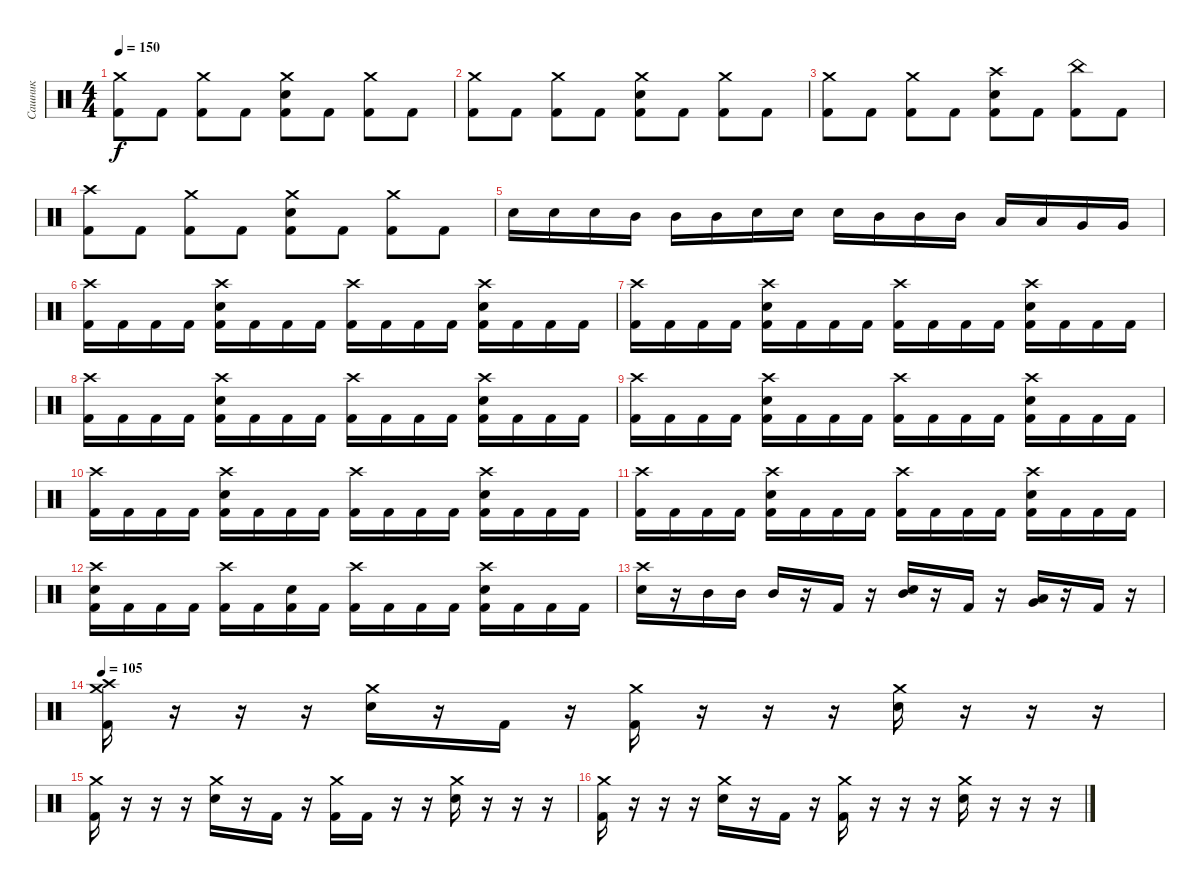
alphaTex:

\track ("Сашник" "Сашник") {instrument percussion}
\staff {score}
\articulation defaults
\ts (4 4)
\tempo 150
\clef neutral
\ks c
("Crash medium (hit)" "Kick (hit) 2").8{dy f} "Kick (hit) 2".8 ("Crash medium (hit)" "Kick (hit) 2").8 "Kick (hit) 2".8 ("Crash medium (hit)" "Electric Snare (hit)" "Kick (hit) 2").8 "Kick (hit) 2".8 ("Crash medium (hit)" "Kick (hit) 2").8 "Kick (hit) 2".8 |
("Crash medium (hit)" "Kick (hit) 2").8 "Kick (hit) 2".8 ("Crash medium (hit)" "Kick (hit) 2").8 "Kick (hit) 2".8 ("Crash medium (hit)" "Electric Snare (hit)" "Kick (hit) 2").8 "Kick (hit) 2".8 ("Crash medium (hit)" "Kick (hit) 2").8 "Kick (hit) 2".8 |
("Crash medium (hit)" "Kick (hit) 2").8 "Kick (hit) 2".8 ("Crash medium (hit)" "Kick (hit) 2").8 "Kick (hit) 2".8 ("Crash high (hit)" "Electric Snare (hit)" "Kick (hit) 2").8 "Kick (hit) 2".8 ("China (hit)" "Kick (hit) 2").8 "Kick (hit) 2".8 |
("Crash high (hit)" "Kick (hit) 2").8 "Kick (hit) 2".8 ("Crash medium (hit)" "Kick (hit) 2").8 "Kick (hit) 2".8 ("Crash medium (hit)" "Electric Snare (hit)" "Kick (hit) 2").8 "Kick (hit) 2".8 ("Crash medium (hit)" "Kick (hit) 2").8 "Kick (hit) 2".8 |
"Electric Snare (hit)".16 "Electric Snare (hit)".16 "Electric Snare (hit)".16 "Mid Tom (hit)".16 "Mid Tom (hit)".16 "Mid Tom (hit)".16 "Electric Snare (hit)".16 "Electric Snare (hit)".16 "Electric Snare (hit)".16 "Mid Tom (hit)".16 "Mid Tom (hit)".16 "Mid Tom (hit)".16 "Low Tom (hit)".16 "Low Tom (hit)".16 "Very Low Tom (hit)".16 "Very Low Tom (hit)".16 |
("Crash high (hit)" "Kick (hit) 2").16 "Kick (hit) 2".16 "Kick (hit) 2".16 "Kick (hit) 2".16 ("Crash high (hit)" "Electric Snare (hit)" "Kick (hit) 2").16 "Kick (hit) 2".16 "Kick (hit) 2".16 "Kick (hit) 2".16 ("Crash high (hit)" "Kick (hit) 2").16 "Kick (hit) 2".16 "Kick (hit) 2".16 "Kick (hit) 2".16 ("Crash high (hit)" "Electric Snare (hit)" "Kick (hit) 2").16 "Kick (hit) 2".16 "Kick (hit) 2".16 "Kick (hit) 2".16 |
("Crash high (hit)" "Kick (hit) 2").16 "Kick (hit) 2".16 "Kick (hit) 2".16 "Kick (hit) 2".16 ("Crash high (hit)" "Electric Snare (hit)" "Kick (hit) 2").16 "Kick (hit) 2".16 "Kick (hit) 2".16 "Kick (hit) 2".16 ("Crash high (hit)" "Kick (hit) 2").16 "Kick (hit) 2".16 "Kick (hit) 2".16 "Kick (hit) 2".16 ("Crash high (hit)" "Electric Snare (hit)" "Kick (hit) 2").16 "Kick (hit) 2".16 "Kick (hit) 2".16 "Kick (hit) 2".16 |
("Crash high (hit)" "Kick (hit) 2").16 "Kick (hit) 2".16 "Kick (hit) 2".16 "Kick (hit) 2".16 ("Crash high (hit)" "Electric Snare (hit)" "Kick (hit) 2").16 "Kick (hit) 2".16 "Kick (hit) 2".16 "Kick (hit) 2".16 ("Crash high (hit)" "Kick (hit) 2").16 "Kick (hit) 2".16 "Kick (hit) 2".16 "Kick (hit) 2".16 ("Crash high (hit)" "Electric Snare (hit)" "Kick (hit) 2").16 "Kick (hit) 2".16 "Kick (hit) 2".16 "Kick (hit) 2".16 |
("Crash high (hit)" "Kick (hit) 2").16 "Kick (hit) 2".16 "Kick (hit) 2".16 "Kick (hit) 2".16 ("Crash high (hit)" "Electric Snare (hit)" "Kick (hit) 2").16 "Kick (hit) 2".16 "Kick (hit) 2".16 "Kick (hit) 2".16 ("Crash high (hit)" "Kick (hit) 2").16 "Kick (hit) 2".16 "Kick (hit) 2".16 "Kick (hit) 2".16 ("Crash high (hit)" "Electric Snare (hit)" "Kick (hit) 2").16 "Kick (hit) 2".16 "Kick (hit) 2".16 "Kick (hit) 2".16 |
("Crash high (hit)" "Kick (hit) 2").16 "Kick (hit) 2".16 "Kick (hit) 2".16 "Kick (hit) 2".16 ("Crash high (hit)" "Electric Snare (hit)" "Kick (hit) 2").16 "Kick (hit) 2".16 "Kick (hit) 2".16 "Kick (hit) 2".16 ("Crash high (hit)" "Kick (hit) 2").16 "Kick (hit) 2".16 "Kick (hit) 2".16 "Kick (hit) 2".16 ("Crash high (hit)" "Electric Snare (hit)" "Kick (hit) 2").16 "Kick (hit) 2".16 "Kick (hit) 2".16 "Kick (hit) 2".16 |
("Crash high (hit)" "Kick (hit) 2").16 "Kick (hit) 2".16 "Kick (hit) 2".16 "Kick (hit) 2".16 ("Crash high (hit)" "Electric Snare (hit)" "Kick (hit) 2").16 "Kick (hit) 2".16 "Kick (hit) 2".16 "Kick (hit) 2".16 ("Crash high (hit)" "Kick (hit) 2").16 "Kick (hit) 2".16 "Kick (hit) 2".16 "Kick (hit) 2".16 ("Crash high (hit)" "Electric Snare (hit)" "Kick (hit) 2").16 "Kick (hit) 2".16 "Kick (hit) 2".16 "Kick (hit) 2".16 |
("Crash high (hit)" "Electric Snare (hit)" "Kick (hit) 2").16 "Kick (hit) 2".16 "Kick (hit) 2".16 "Kick (hit) 2".16 ("Crash high (hit)" "Kick (hit) 2").16 "Kick (hit) 2".16 ("Electric Snare (hit)" "Kick (hit) 2").16 "Kick (hit) 2".16 ("Crash high (hit)" "Kick (hit) 2").16 "Kick (hit) 2".16 "Kick (hit) 2".16 "Kick (hit) 2".16 ("Crash high (hit)" "Electric Snare (hit)" "Kick (hit) 2").16 "Kick (hit) 2".16 "Kick (hit) 2".16 "Kick (hit) 2".16 |
("Crash high (hit)" "Electric Snare (hit)").16 r.16 "Mid Tom (hit)".16 "Mid Tom (hit)".16 "Mid Tom (hit)".16 r.16 "Kick (hit) 2".16 r.16 ("Electric Snare (hit)" "Mid Tom (hit)").16 r.16 "Kick (hit) 2".16 r.16 ("Low Tom (hit)" "Very Low Tom (hit)").16 r.16 "Kick (hit) 2".16 r.16 |
\tempo 98
\tempo 105
("Crash medium (hit)" "Crash high (hit)" "Kick (hit) 2").16 r.16 r.16 r.16 ("Crash medium (hit)" "Electric Snare (hit)").16 r.16 "Kick (hit) 2".16 r.16 ("Crash medium (hit)" "Kick (hit) 2").16 r.16 r.16 r.16 ("Crash medium (hit)" "Electric Snare (hit)").16 r.16 r.16 r.16 |
("Crash medium (hit)" "Kick (hit) 2").16 r.16 r.16 r.16 ("Crash medium (hit)" "Electric Snare (hit)").16 r.16 "Kick (hit) 2".16 r.16 ("Crash medium (hit)" "Kick (hit) 2").16 "Kick (hit) 2".16 r.16 r.16 ("Crash medium (hit)" "Electric Snare (hit)").16 r.16 r.16 r.16 |
("Crash medium (hit)" "Kick (hit) 2").16 r.16 r.16 r.16 ("Crash medium (hit)" "Electric Snare (hit)").16 r.16 "Kick (hit) 2".16 r.16 ("Crash medium (hit)" "Kick (hit) 2").16 r.16 r.16 r.16 ("Crash medium (hit)" "Electric Snare (hit)").16 r.16 r.16 r.16
